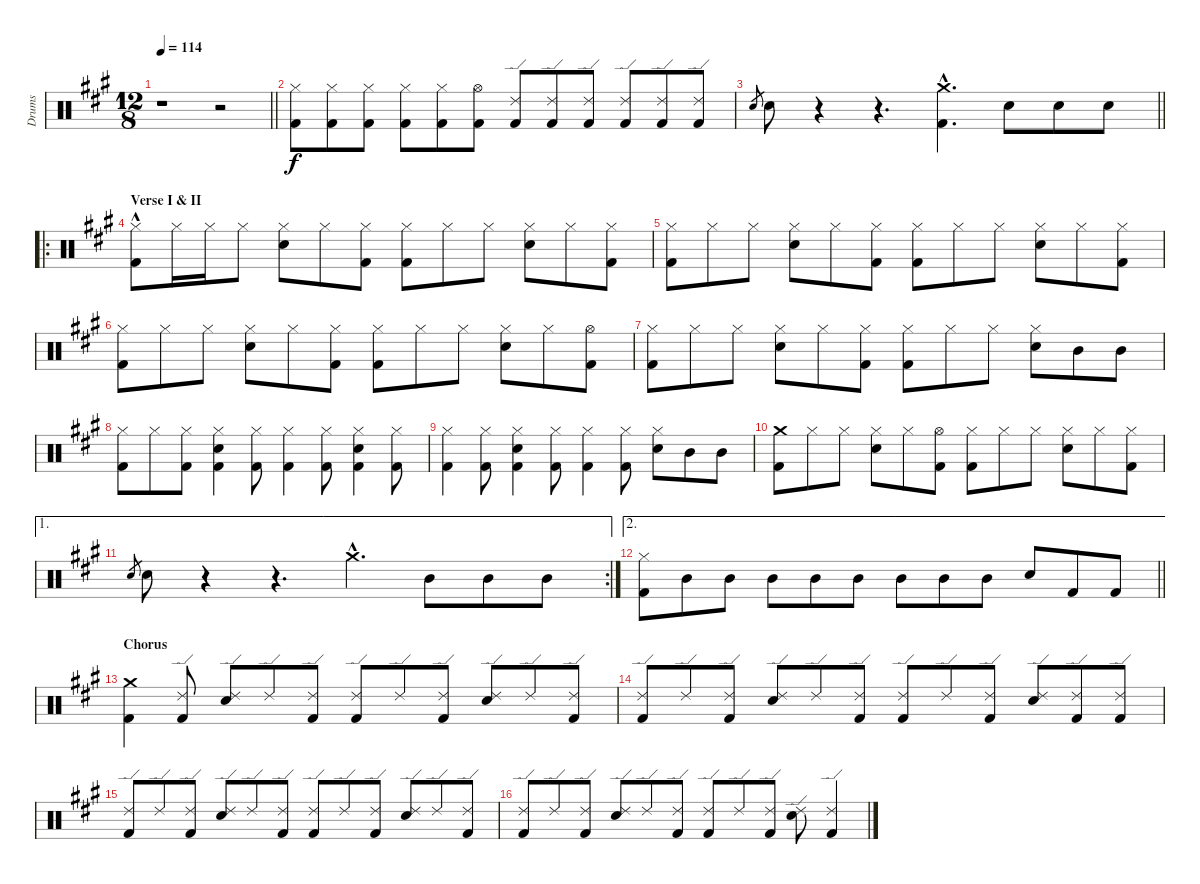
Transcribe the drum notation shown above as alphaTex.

\track ("Drums" "Drums") {instrument percussion}
\staff {score}
\articulation defaults
\ts (12 8)
\tempo 114
\clef neutral
\barLineRight lightlight
\ks a
r.1{dy f} r.2 |
("Hi-Hat (closed)" "Kick (hit) 2").8 ("Hi-Hat (closed)" "Kick (hit) 2").8 ("Hi-Hat (closed)" "Kick (hit) 2").8 ("Hi-Hat (closed)" "Kick (hit) 2").8 ("Hi-Hat (closed)" "Kick (hit) 2").8 ("Hi-Hat (open)" "Kick (hit) 2").8 ("Ride (edge) 2" "Kick (hit) 2").8 ("Ride (edge) 2" "Kick (hit) 2").8 ("Ride (edge) 2" "Kick (hit) 2").8 ("Ride (edge) 2" "Kick (hit) 2").8 ("Ride (edge) 2" "Kick (hit) 2").8 ("Ride (edge) 2" "Kick (hit) 2").8 |
\barLineRight lightlight "Snare (hit) 2".8{gr} "Snare (hit) 2".8
r.4 r.4{d} ("Crash medium (hit)"{hac} "Kick (hit) 2"{hac}).4{d} "Snare (hit) 2".8 "Snare (hit) 2".8 "Snare (hit) 2".8 |
\ro
\section ("" "Verse I & II")
("Hi-Hat (closed)" "Kick (hit) 2"{hac}).8 "Hi-Hat (closed)".16 "Hi-Hat (closed)".16 "Hi-Hat (closed)".8 ("Hi-Hat (closed)" "Snare (hit) 2").8 "Hi-Hat (closed)".8 ("Hi-Hat (closed)" "Kick (hit) 2").8 ("Hi-Hat (closed)" "Kick (hit) 2").8 "Hi-Hat (closed)".8 "Hi-Hat (closed)".8 ("Hi-Hat (closed)" "Snare (hit) 2").8 "Hi-Hat (closed)".8 ("Hi-Hat (closed)" "Kick (hit) 2").8 |
("Hi-Hat (closed)" "Kick (hit) 2").8 "Hi-Hat (closed)".8 "Hi-Hat (closed)".8 ("Hi-Hat (closed)" "Snare (hit) 2").8 "Hi-Hat (closed)".8 ("Hi-Hat (closed)" "Kick (hit) 2").8 ("Hi-Hat (closed)" "Kick (hit) 2").8 "Hi-Hat (closed)".8 "Hi-Hat (closed)".8 ("Hi-Hat (closed)" "Snare (hit) 2").8 "Hi-Hat (closed)".8 ("Hi-Hat (closed)" "Kick (hit) 2").8 |
("Hi-Hat (closed)" "Kick (hit) 2").8 "Hi-Hat (closed)".8 "Hi-Hat (closed)".8 ("Hi-Hat (closed)" "Snare (hit) 2").8 "Hi-Hat (closed)".8 ("Hi-Hat (closed)" "Kick (hit) 2").8 ("Hi-Hat (closed)" "Kick (hit) 2").8 "Hi-Hat (closed)".8 "Hi-Hat (closed)".8 ("Hi-Hat (closed)" "Snare (hit) 2").8 "Hi-Hat (closed)".8 ("Hi-Hat (open)" "Kick (hit) 2").8 |
("Hi-Hat (closed)" "Kick (hit) 2").8 "Hi-Hat (closed)".8 "Hi-Hat (closed)".8 ("Hi-Hat (closed)" "Snare (hit) 2").8 "Hi-Hat (closed)".8 ("Hi-Hat (closed)" "Kick (hit) 2").8 ("Hi-Hat (closed)" "Kick (hit) 2").8 "Hi-Hat (closed)".8 "Hi-Hat (closed)".8 ("Hi-Hat (closed)" "Snare (hit) 2").8 "Mid Tom (hit)".8 "Mid Tom (hit)".8 |
("Hi-Hat (closed)" "Kick (hit) 2").8 "Hi-Hat (closed)".8 ("Hi-Hat (closed)" "Kick (hit) 2").8 ("Hi-Hat (closed)" "Snare (hit) 2" "Kick (hit) 2").4 ("Hi-Hat (closed)" "Kick (hit) 2").8 ("Hi-Hat (closed)" "Kick (hit) 2").4 ("Hi-Hat (closed)" "Kick (hit) 2").8 ("Hi-Hat (closed)" "Snare (hit) 2" "Kick (hit) 2").4 ("Hi-Hat (closed)" "Kick (hit) 2").8 |
("Hi-Hat (closed)" "Kick (hit) 2").4 ("Hi-Hat (closed)" "Kick (hit) 2").8 ("Hi-Hat (closed)" "Snare (hit) 2" "Kick (hit) 2").4 ("Hi-Hat (closed)" "Kick (hit) 2").8 ("Hi-Hat (closed)" "Kick (hit) 2").4 ("Hi-Hat (closed)" "Kick (hit) 2").8 ("Hi-Hat (closed)" "Snare (hit) 2").8 "Mid Tom (hit)".8 "Mid Tom (hit)".8 |
("Crash medium (hit)" "Kick (hit) 2").8 "Hi-Hat (closed)".8 "Hi-Hat (closed)".8 ("Hi-Hat (closed)" "Snare (hit) 2").8 "Hi-Hat (closed)".8 ("Hi-Hat (open)" "Kick (hit) 2").8 ("Hi-Hat (closed)" "Kick (hit) 2").8 "Hi-Hat (closed)".8 "Hi-Hat (closed)".8 ("Hi-Hat (closed)" "Snare (hit) 2").8 "Hi-Hat (closed)".8 ("Hi-Hat (closed)" "Kick (hit) 2").8 |
\ae 1
\rc 2 "Snare (hit) 2".8{gr} "Snare (hit) 2".8
r.4 r.4{d} "Crash medium (hit)"{hac}.4{d} "Mid Tom (hit)".8 "Mid Tom (hit)".8 "Mid Tom (hit)".8 |
\ae 2
\barLineRight lightlight
("Hi-Hat (closed)" "Kick (hit) 2").8 "Mid Tom (hit)".8 "Mid Tom (hit)".8 "Mid Tom (hit)".8 "Mid Tom (hit)".8 "Mid Tom (hit)".8 "Mid Tom (hit)".8 "Mid Tom (hit)".8 "Mid Tom (hit)".8 "Snare (hit) 2".8 "Kick (hit) 2".8 "Kick (hit) 2".8 |
\section ("" "Chorus")
("Crash medium (hit)" "Kick (hit) 2").4 ("Ride (edge) 2" "Kick (hit) 2").8 ("Ride (edge) 2" "Snare (hit) 2").8 "Ride (edge) 2".8 ("Ride (edge) 2" "Kick (hit) 2").8 ("Ride (edge) 2" "Kick (hit) 2").8 "Ride (edge) 2".8 ("Ride (edge) 2" "Kick (hit) 2").8 ("Ride (edge) 2" "Snare (hit) 2").8 "Ride (edge) 2".8 ("Ride (edge) 2" "Kick (hit) 2").8 |
("Ride (edge) 2" "Kick (hit) 2").8 "Ride (edge) 2".8 ("Ride (edge) 2" "Kick (hit) 2").8 ("Ride (edge) 2" "Snare (hit) 2").8 "Ride (edge) 2".8 ("Ride (edge) 2" "Kick (hit) 2").8 ("Ride (edge) 2" "Kick (hit) 2").8 "Ride (edge) 2".8 ("Ride (edge) 2" "Kick (hit) 2").8 ("Ride (edge) 2" "Snare (hit) 2").8 ("Ride (edge) 2" "Kick (hit) 2").8 ("Ride (edge) 2" "Kick (hit) 2").8 |
("Ride (edge) 2" "Kick (hit) 2").8 "Ride (edge) 2".8 ("Ride (edge) 2" "Kick (hit) 2").8 ("Ride (edge) 2" "Snare (hit) 2").8 "Ride (edge) 2".8 ("Ride (edge) 2" "Kick (hit) 2").8 ("Ride (edge) 2" "Kick (hit) 2").8 "Ride (edge) 2".8 ("Ride (edge) 2" "Kick (hit) 2").8 ("Ride (edge) 2" "Snare (hit) 2").8 "Ride (edge) 2".8 ("Ride (edge) 2" "Kick (hit) 2").8 |
("Ride (edge) 2" "Kick (hit) 2").8 "Ride (edge) 2".8 ("Ride (edge) 2" "Kick (hit) 2").8 ("Ride (edge) 2" "Snare (hit) 2").8 "Ride (edge) 2".8 ("Ride (edge) 2" "Kick (hit) 2").8 ("Ride (edge) 2" "Kick (hit) 2").8 "Ride (edge) 2".8 ("Ride (edge) 2" "Kick (hit) 2").8 ("Ride (edge) 2" "Snare (hit) 2").8 ("Ride (edge) 2" "Kick (hit) 2").4
